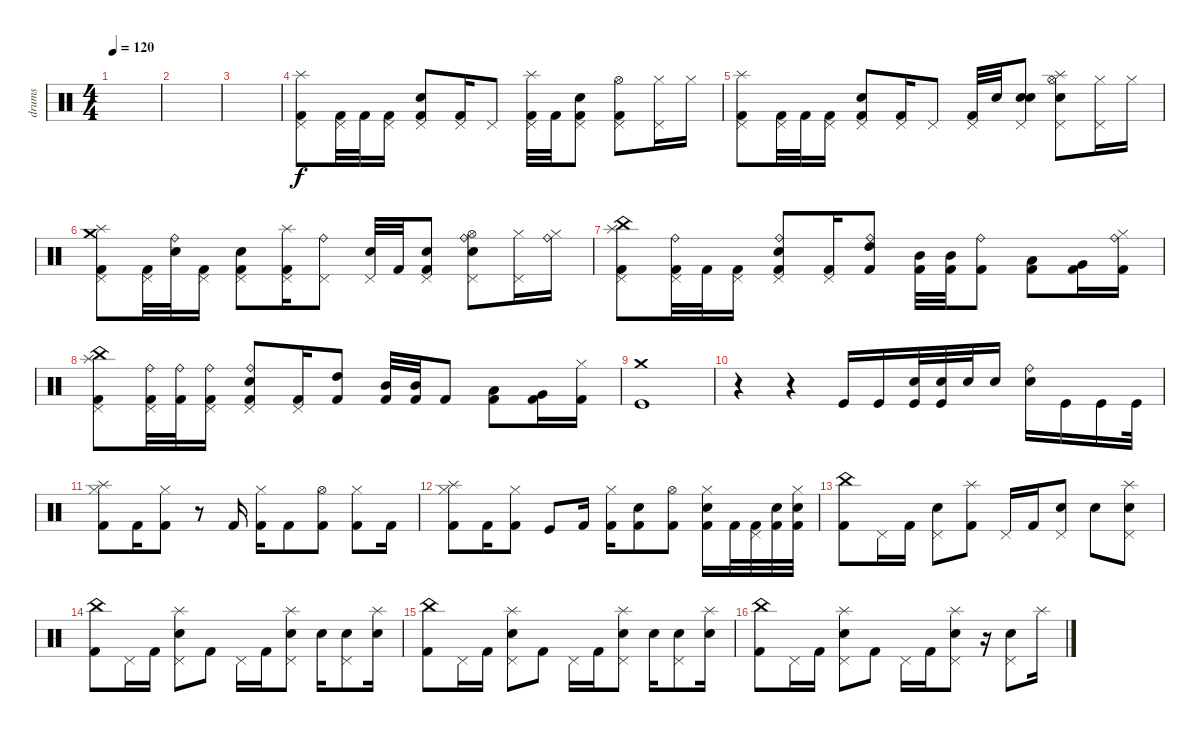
\track ("drums" "drums") {instrument percussion}
\staff {score}
\articulation defaults
\ts (4 4)
\tempo 120
\clef neutral
\ks c
|
|
|
("Splash (hit)" "Pedal Hi-Hat (hit)" "Kick (hit) 2").8 ("Pedal Hi-Hat (hit)" "Kick (hit) 2").32 "Kick (hit) 2".32 ("Pedal Hi-Hat (hit)" "Kick (hit) 2").16 ("Pedal Hi-Hat (hit)" "Electric Snare (hit)" "Kick (hit) 2").8 ("Pedal Hi-Hat (hit)" "Kick (hit) 2").16 "Pedal Hi-Hat (hit)".8 ("Pedal Hi-Hat (hit)" "Kick (hit) 2" "Splash (hit)").32 "Kick (hit) 2".32 ("Pedal Hi-Hat (hit)" "Electric Snare (hit)" "Kick (hit) 2").8 ("Pedal Hi-Hat (hit)" "Hi-Hat (open)" "Kick (hit) 2").8 ("Pedal Hi-Hat (hit)" "Hi-Hat (closed)").16 "Hi-Hat (closed)".16 |
("Pedal Hi-Hat (hit)" "Kick (hit) 2" "Splash (hit)").8 ("Pedal Hi-Hat (hit)" "Kick (hit) 2").32 "Kick (hit) 2".32 ("Pedal Hi-Hat (hit)" "Kick (hit) 2").16 ("Pedal Hi-Hat (hit)" "Electric Snare (hit)" "Kick (hit) 2").8 ("Pedal Hi-Hat (hit)" "Kick (hit) 2").16 "Pedal Hi-Hat (hit)".8 ("Pedal Hi-Hat (hit)" "Kick (hit) 2").32 "Electric Snare (hit)".32 ("Pedal Hi-Hat (hit)" "Electric Snare (hit)" "Electric Snare (hit)").8 ("Pedal Hi-Hat (hit)" "Hi-Hat (open)" "Electric Snare (hit)" "Splash (hit)").8 ("Pedal Hi-Hat (hit)" "Hi-Hat (closed)").16 "Hi-Hat (closed)".16 |
("Splash (hit)" "Pedal Hi-Hat (hit)" "Kick (hit) 2" "Crash medium (hit)").8 ("Pedal Hi-Hat (hit)" "Kick (hit) 2").32 ("Electric Snare (hit)" "Ride (bell)").32 ("Pedal Hi-Hat (hit)" "Kick (hit) 2").16 ("Pedal Hi-Hat (hit)" "Electric Snare (hit)" "Kick (hit) 2").8 ("Pedal Hi-Hat (hit)" "Kick (hit) 2" "Splash (hit)").16 ("Pedal Hi-Hat (hit)" "Ride (bell)").8 ("Pedal Hi-Hat (hit)" "Electric Snare (hit)").32 "Kick (hit) 2".32 ("Pedal Hi-Hat (hit)" "Electric Snare (hit)" "Kick (hit) 2").8 ("Pedal Hi-Hat (hit)" "Hi-Hat (open)" "Electric Snare (hit)" "Ride (bell)").8 ("Pedal Hi-Hat (hit)" "Hi-Hat (closed)").16 ("Hi-Hat (closed)" "Ride (bell)").16 |
("China (hit)" "Pedal Hi-Hat (hit)" "Kick (hit) 2" "Splash (hit)").8 ("Pedal Hi-Hat (hit)" "Kick (hit) 2" "Ride (bell)").32 "Kick (hit) 2".32 ("Pedal Hi-Hat (hit)" "Kick (hit) 2").16 ("Pedal Hi-Hat (hit)" "Electric Snare (hit)" "Kick (hit) 2" "Ride (bell)").8 ("Pedal Hi-Hat (hit)" "Kick (hit) 2").16 ("High Tom (hit)" "Kick (hit) 2" "Ride (bell)").8 ("Mid Tom (hit)" "Kick (hit) 2").32 ("Mid Tom (hit)" "Kick (hit) 2").32 ("Kick (hit) 2" "Ride (bell)").8 ("Low Tom (hit)" "Kick (hit) 2").8 ("Very Low Tom (hit)" "Kick (hit) 2").16 ("Hi-Hat (closed)" "Kick (hit) 2" "Ride (bell)").16 |
("China (hit)" "Pedal Hi-Hat (hit)" "Kick (hit) 2" "Splash (hit)").8 ("Pedal Hi-Hat (hit)" "Kick (hit) 2" "Ride (bell)").32 ("Kick (hit) 2" "Ride (bell)").32 ("Pedal Hi-Hat (hit)" "Kick (hit) 2" "Ride (bell)").16 ("Pedal Hi-Hat (hit)" "Electric Snare (hit)" "Kick (hit) 2" "Ride (bell)").8 ("Pedal Hi-Hat (hit)" "Kick (hit) 2").16 ("High Tom (hit)" "Kick (hit) 2").8 ("Mid Tom (hit)" "Kick (hit) 2").32 ("Mid Tom (hit)" "Kick (hit) 2").32 "Kick (hit) 2".8 ("Low Tom (hit)" "Kick (hit) 2").8 ("Very Low Tom (hit)" "Kick (hit) 2").16 ("Hi-Hat (closed)" "Kick (hit) 2").16 |
("Kick (hit)" "Crash medium (hit)").1 |
r.4 r.4 "Kick (hit)".16 "Kick (hit)".16 ("Electric Snare (hit)" "Kick (hit)").32 ("Electric Snare (hit)" "Kick (hit)").32 "Electric Snare (hit)".32 "Electric Snare (hit)".16 ("Ride (bell)" "Electric Snare (hit)").16 "Kick (hit)".16 "Kick (hit)".16 "Kick (hit)".32 |
("Hi-Hat (closed)" "Kick (hit) 2" "Splash (hit)").8 "Kick (hit) 2".16 ("Hi-Hat (closed)" "Kick (hit) 2").8 r.8 "Kick (hit) 2".16 ("Hi-Hat (closed)" "Kick (hit) 2").16 "Kick (hit) 2".8 ("Hi-Hat (open)" "Kick (hit) 2").8 ("Hi-Hat (closed)" "Kick (hit) 2").8 "Kick (hit) 2".16 |
("Hi-Hat (closed)" "Kick (hit) 2" "Splash (hit)").8 "Kick (hit) 2".16 ("Hi-Hat (closed)" "Kick (hit) 2").8 "Kick (hit)".8 "Kick (hit) 2".16 ("Hi-Hat (closed)" "Kick (hit) 2").16 ("Kick (hit) 2" "Electric Snare (hit)").8 ("Hi-Hat (open)" "Kick (hit) 2").8 ("Hi-Hat (closed)" "Kick (hit) 2" "Electric Snare (hit)").16 "Kick (hit) 2".32 ("Pedal Hi-Hat (hit)" "Kick (hit) 2").32 ("Kick (hit) 2" "Electric Snare (hit)").32 ("Hi-Hat (closed)" "Kick (hit) 2" "Electric Snare (hit)").32 |
("Kick (hit) 2" "China (hit)").8 "Pedal Hi-Hat (hit)".16 "Kick (hit) 2".16 ("Pedal Hi-Hat (hit)" "Electric Snare (hit)").8 ("Kick (hit) 2" "Splash (hit)").8 "Pedal Hi-Hat (hit)".16 "Kick (hit) 2".16 ("Pedal Hi-Hat (hit)" "Electric Snare (hit)").8 "Electric Snare (hit)".8 ("Pedal Hi-Hat (hit)" "Electric Snare (hit)" "Splash (hit)").8 |
("Kick (hit) 2" "China (hit)").8 "Pedal Hi-Hat (hit)".16 "Kick (hit) 2".16 ("Pedal Hi-Hat (hit)" "Electric Snare (hit)" "Splash (hit)").8 "Kick (hit) 2".8 "Pedal Hi-Hat (hit)".16 "Kick (hit) 2".16 ("Pedal Hi-Hat (hit)" "Electric Snare (hit)" "Splash (hit)").8 "Electric Snare (hit)".16 ("Pedal Hi-Hat (hit)" "Electric Snare (hit)").8 ("Electric Snare (hit)" "Splash (hit)").16 |
("Kick (hit) 2" "China (hit)").8 "Pedal Hi-Hat (hit)".16 "Kick (hit) 2".16 ("Pedal Hi-Hat (hit)" "Electric Snare (hit)" "Splash (hit)").8 "Kick (hit) 2".8 "Pedal Hi-Hat (hit)".16 "Kick (hit) 2".16 ("Pedal Hi-Hat (hit)" "Electric Snare (hit)" "Splash (hit)").8 "Electric Snare (hit)".16 ("Pedal Hi-Hat (hit)" "Electric Snare (hit)").8 ("Electric Snare (hit)" "Splash (hit)").16 |
("Kick (hit) 2" "China (hit)").8 "Pedal Hi-Hat (hit)".16 "Kick (hit) 2".16 ("Pedal Hi-Hat (hit)" "Electric Snare (hit)" "Splash (hit)").8 "Kick (hit) 2".8 "Pedal Hi-Hat (hit)".16 "Kick (hit) 2".16 ("Pedal Hi-Hat (hit)" "Electric Snare (hit)" "Splash (hit)").8 r.16 ("Pedal Hi-Hat (hit)" "Electric Snare (hit)").8 "Splash (hit)".16
